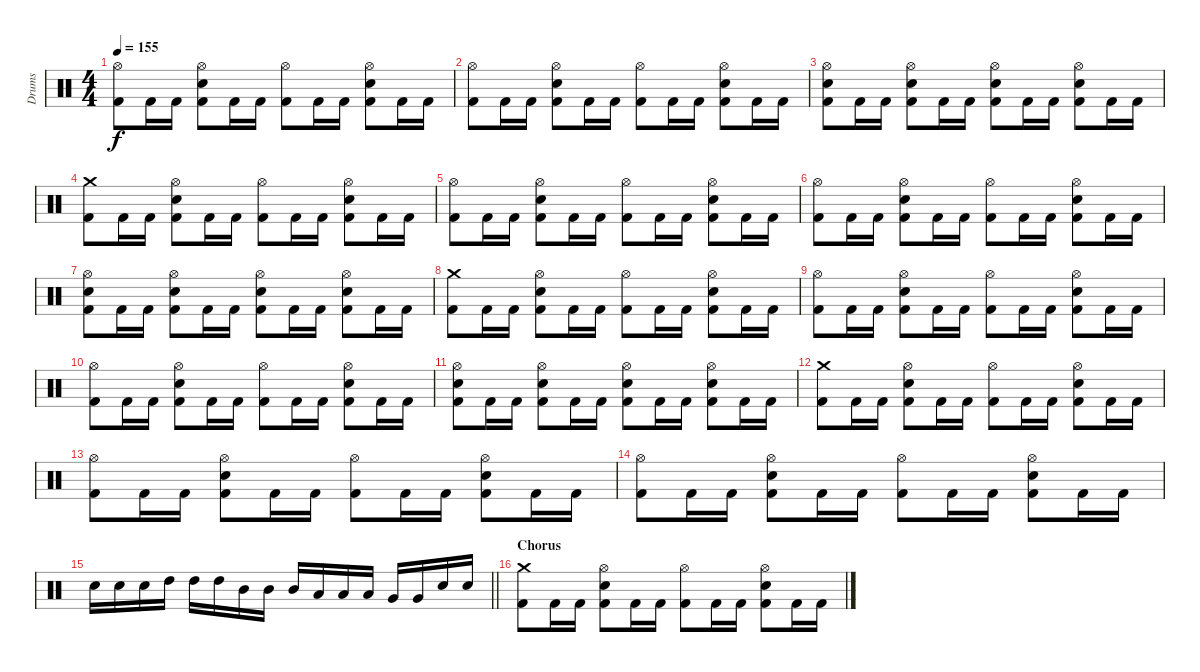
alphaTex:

\track ("Drums" "Drums") {instrument percussion}
\staff {score}
\articulation defaults
\ts (4 4)
\tempo 155
\clef neutral
\ks c
("Hi-Hat (open)" "Kick (hit) 2").8{dy f} "Kick (hit) 2".16 "Kick (hit) 2".16 ("Hi-Hat (open)" "Electric Snare (hit)" "Kick (hit) 2").8 "Kick (hit) 2".16 "Kick (hit) 2".16 ("Hi-Hat (open)" "Kick (hit) 2").8 "Kick (hit) 2".16 "Kick (hit) 2".16 ("Hi-Hat (open)" "Electric Snare (hit)" "Kick (hit) 2").8 "Kick (hit) 2".16 "Kick (hit) 2".16 |
("Hi-Hat (open)" "Kick (hit) 2").8 "Kick (hit) 2".16 "Kick (hit) 2".16 ("Hi-Hat (open)" "Electric Snare (hit)" "Kick (hit) 2").8 "Kick (hit) 2".16 "Kick (hit) 2".16 ("Hi-Hat (open)" "Kick (hit) 2").8 "Kick (hit) 2".16 "Kick (hit) 2".16 ("Hi-Hat (open)" "Electric Snare (hit)" "Kick (hit) 2").8 "Kick (hit) 2".16 "Kick (hit) 2".16 |
("Hi-Hat (open)" "Electric Snare (hit)" "Kick (hit) 2").8 "Kick (hit) 2".16 "Kick (hit) 2".16 ("Hi-Hat (open)" "Electric Snare (hit)" "Kick (hit) 2").8 "Kick (hit) 2".16 "Kick (hit) 2".16 ("Hi-Hat (open)" "Electric Snare (hit)" "Kick (hit) 2").8 "Kick (hit) 2".16 "Kick (hit) 2".16 ("Hi-Hat (open)" "Electric Snare (hit)" "Kick (hit) 2").8 "Kick (hit) 2".16 "Kick (hit) 2".16 |
("Crash medium (hit)" "Kick (hit) 2").8 "Kick (hit) 2".16 "Kick (hit) 2".16 ("Hi-Hat (open)" "Electric Snare (hit)" "Kick (hit) 2").8 "Kick (hit) 2".16 "Kick (hit) 2".16 ("Hi-Hat (open)" "Kick (hit) 2").8 "Kick (hit) 2".16 "Kick (hit) 2".16 ("Hi-Hat (open)" "Electric Snare (hit)" "Kick (hit) 2").8 "Kick (hit) 2".16 "Kick (hit) 2".16 |
("Hi-Hat (open)" "Kick (hit) 2").8 "Kick (hit) 2".16 "Kick (hit) 2".16 ("Hi-Hat (open)" "Electric Snare (hit)" "Kick (hit) 2").8 "Kick (hit) 2".16 "Kick (hit) 2".16 ("Hi-Hat (open)" "Kick (hit) 2").8 "Kick (hit) 2".16 "Kick (hit) 2".16 ("Hi-Hat (open)" "Electric Snare (hit)" "Kick (hit) 2").8 "Kick (hit) 2".16 "Kick (hit) 2".16 |
("Hi-Hat (open)" "Kick (hit) 2").8 "Kick (hit) 2".16 "Kick (hit) 2".16 ("Hi-Hat (open)" "Electric Snare (hit)" "Kick (hit) 2").8 "Kick (hit) 2".16 "Kick (hit) 2".16 ("Hi-Hat (open)" "Kick (hit) 2").8 "Kick (hit) 2".16 "Kick (hit) 2".16 ("Hi-Hat (open)" "Electric Snare (hit)" "Kick (hit) 2").8 "Kick (hit) 2".16 "Kick (hit) 2".16 |
("Hi-Hat (open)" "Electric Snare (hit)" "Kick (hit) 2").8 "Kick (hit) 2".16 "Kick (hit) 2".16 ("Hi-Hat (open)" "Electric Snare (hit)" "Kick (hit) 2").8 "Kick (hit) 2".16 "Kick (hit) 2".16 ("Hi-Hat (open)" "Electric Snare (hit)" "Kick (hit) 2").8 "Kick (hit) 2".16 "Kick (hit) 2".16 ("Hi-Hat (open)" "Electric Snare (hit)" "Kick (hit) 2").8 "Kick (hit) 2".16 "Kick (hit) 2".16 |
("Crash medium (hit)" "Kick (hit) 2").8 "Kick (hit) 2".16 "Kick (hit) 2".16 ("Hi-Hat (open)" "Electric Snare (hit)" "Kick (hit) 2").8 "Kick (hit) 2".16 "Kick (hit) 2".16 ("Hi-Hat (open)" "Kick (hit) 2").8 "Kick (hit) 2".16 "Kick (hit) 2".16 ("Hi-Hat (open)" "Electric Snare (hit)" "Kick (hit) 2").8 "Kick (hit) 2".16 "Kick (hit) 2".16 |
("Hi-Hat (open)" "Kick (hit) 2").8 "Kick (hit) 2".16 "Kick (hit) 2".16 ("Hi-Hat (open)" "Electric Snare (hit)" "Kick (hit) 2").8 "Kick (hit) 2".16 "Kick (hit) 2".16 ("Hi-Hat (open)" "Kick (hit) 2").8 "Kick (hit) 2".16 "Kick (hit) 2".16 ("Hi-Hat (open)" "Electric Snare (hit)" "Kick (hit) 2").8 "Kick (hit) 2".16 "Kick (hit) 2".16 |
("Hi-Hat (open)" "Kick (hit) 2").8 "Kick (hit) 2".16 "Kick (hit) 2".16 ("Hi-Hat (open)" "Electric Snare (hit)" "Kick (hit) 2").8 "Kick (hit) 2".16 "Kick (hit) 2".16 ("Hi-Hat (open)" "Kick (hit) 2").8 "Kick (hit) 2".16 "Kick (hit) 2".16 ("Hi-Hat (open)" "Electric Snare (hit)" "Kick (hit) 2").8 "Kick (hit) 2".16 "Kick (hit) 2".16 |
("Hi-Hat (open)" "Electric Snare (hit)" "Kick (hit) 2").8 "Kick (hit) 2".16 "Kick (hit) 2".16 ("Hi-Hat (open)" "Electric Snare (hit)" "Kick (hit) 2").8 "Kick (hit) 2".16 "Kick (hit) 2".16 ("Hi-Hat (open)" "Electric Snare (hit)" "Kick (hit) 2").8 "Kick (hit) 2".16 "Kick (hit) 2".16 ("Hi-Hat (open)" "Electric Snare (hit)" "Kick (hit) 2").8 "Kick (hit) 2".16 "Kick (hit) 2".16 |
("Crash medium (hit)" "Kick (hit) 2").8 "Kick (hit) 2".16 "Kick (hit) 2".16 ("Hi-Hat (open)" "Electric Snare (hit)" "Kick (hit) 2").8 "Kick (hit) 2".16 "Kick (hit) 2".16 ("Hi-Hat (open)" "Kick (hit) 2").8 "Kick (hit) 2".16 "Kick (hit) 2".16 ("Hi-Hat (open)" "Electric Snare (hit)" "Kick (hit) 2").8 "Kick (hit) 2".16 "Kick (hit) 2".16 |
("Hi-Hat (open)" "Kick (hit) 2").8 "Kick (hit) 2".16 "Kick (hit) 2".16 ("Hi-Hat (open)" "Electric Snare (hit)" "Kick (hit) 2").8 "Kick (hit) 2".16 "Kick (hit) 2".16 ("Hi-Hat (open)" "Kick (hit) 2").8 "Kick (hit) 2".16 "Kick (hit) 2".16 ("Hi-Hat (open)" "Electric Snare (hit)" "Kick (hit) 2").8 "Kick (hit) 2".16 "Kick (hit) 2".16 |
("Hi-Hat (open)" "Kick (hit) 2").8 "Kick (hit) 2".16 "Kick (hit) 2".16 ("Hi-Hat (open)" "Electric Snare (hit)" "Kick (hit) 2").8 "Kick (hit) 2".16 "Kick (hit) 2".16 ("Hi-Hat (open)" "Kick (hit) 2").8 "Kick (hit) 2".16 "Kick (hit) 2".16 ("Hi-Hat (open)" "Electric Snare (hit)" "Kick (hit) 2").8 "Kick (hit) 2".16 "Kick (hit) 2".16 |
\barLineRight lightlight "Electric Snare (hit)".16 "Electric Snare (hit)".16 "Electric Snare (hit)".16 "High Tom (hit)".16 "High Tom (hit)".16 "High Tom (hit)".16 "Mid Tom (hit)".16 "Mid Tom (hit)".16 "Mid Tom (hit)".16 "Low Tom (hit)".16 "Low Tom (hit)".16 "Low Tom (hit)".16 "Very Low Tom (hit)".16 "Very Low Tom (hit)".16 "Electric Snare (hit)".16 "Electric Snare (hit)".16
|
\section ("" "Chorus")
("Crash medium (hit)" "Kick (hit) 2").8 "Kick (hit) 2".16 "Kick (hit) 2".16 ("Hi-Hat (open)" "Electric Snare (hit)" "Kick (hit) 2").8 "Kick (hit) 2".16 "Kick (hit) 2".16 ("Hi-Hat (open)" "Kick (hit) 2").8 "Kick (hit) 2".16 "Kick (hit) 2".16 ("Hi-Hat (open)" "Electric Snare (hit)" "Kick (hit) 2").8 "Kick (hit) 2".16 "Kick (hit) 2".16
